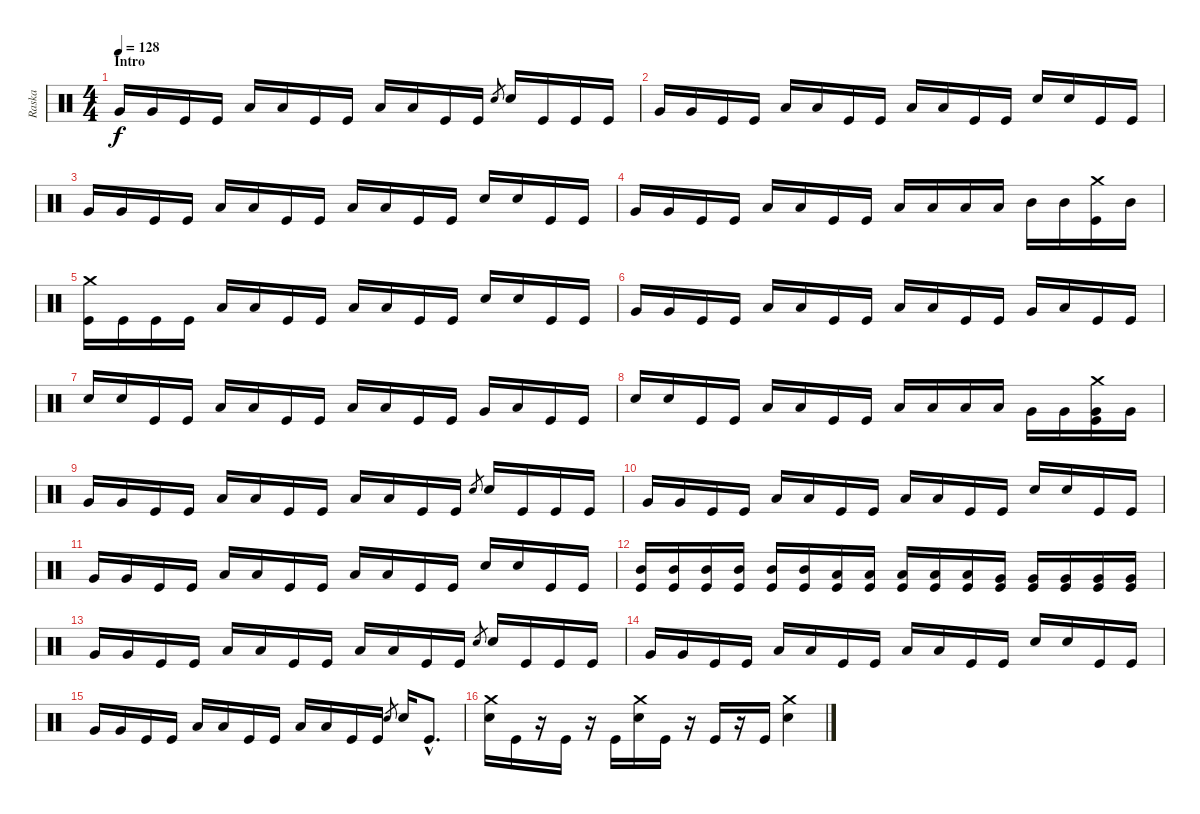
\track ("Raska" "Raska") {instrument percussion}
\staff {score}
\articulation defaults
\ts (4 4)
\section ("" "Intro")
\tempo 128
\clef neutral
\ks c "Very Low Tom (hit)".16{dy f} "Very Low Tom (hit)".16 "Kick (hit)".16 "Kick (hit)".16 "Low Floor Tom (hit)".16 "Low Floor Tom (hit)".16 "Kick (hit)".16 "Kick (hit)".16 "Low Tom (hit)".16 "Low Tom (hit)".16 "Kick (hit)".16 "Kick (hit)".16 "Electric Snare (hit)".8{gr} "Electric Snare (hit)".16 "Kick (hit)".16 "Kick (hit)".16 "Kick (hit)".16
|
"Very Low Tom (hit)".16 "Very Low Tom (hit)".16 "Kick (hit)".16 "Kick (hit)".16 "Low Floor Tom (hit)".16 "Low Floor Tom (hit)".16 "Kick (hit)".16 "Kick (hit)".16 "Low Tom (hit)".16 "Low Tom (hit)".16 "Kick (hit)".16 "Kick (hit)".16 "Electric Snare (hit)".16 "Electric Snare (hit)".16 "Kick (hit)".16 "Kick (hit)".16 |
"Very Low Tom (hit)".16 "Very Low Tom (hit)".16 "Kick (hit)".16 "Kick (hit)".16 "Low Floor Tom (hit)".16 "Low Floor Tom (hit)".16 "Kick (hit)".16 "Kick (hit)".16 "Low Tom (hit)".16 "Low Tom (hit)".16 "Kick (hit)".16 "Kick (hit)".16 "Electric Snare (hit)".16 "Electric Snare (hit)".16 "Kick (hit)".16 "Kick (hit)".16 |
"Very Low Tom (hit)".16 "Very Low Tom (hit)".16 "Kick (hit)".16 "Kick (hit)".16 "Low Floor Tom (hit)".16 "Low Floor Tom (hit)".16 "Kick (hit)".16 "Kick (hit)".16 "Low Floor Tom (hit)".16 "Low Floor Tom (hit)".16 "Low Floor Tom (hit)".16 "Low Floor Tom (hit)".16 "Mid Tom (hit)".16 "Mid Tom (hit)".16 ("Crash medium (hit)" "Kick (hit)").16 "Mid Tom (hit)".16 |
("Crash medium (hit)" "Kick (hit)").16 "Kick (hit)".16 "Kick (hit)".16 "Kick (hit)".16 "Low Floor Tom (hit)".16 "Low Floor Tom (hit)".16 "Kick (hit)".16 "Kick (hit)".16 "Low Tom (hit)".16 "Low Tom (hit)".16 "Kick (hit)".16 "Kick (hit)".16 "Electric Snare (hit)".16 "Electric Snare (hit)".16 "Kick (hit)".16 "Kick (hit)".16 |
"Very Low Tom (hit)".16 "Very Low Tom (hit)".16 "Kick (hit)".16 "Kick (hit)".16 "Low Floor Tom (hit)".16 "Low Floor Tom (hit)".16 "Kick (hit)".16 "Kick (hit)".16 "Low Tom (hit)".16 "Low Tom (hit)".16 "Kick (hit)".16 "Kick (hit)".16 "Very Low Tom (hit)".16 "Low Floor Tom (hit)".16 "Kick (hit)".16 "Kick (hit)".16 |
"Electric Snare (hit)".16 "Electric Snare (hit)".16 "Kick (hit)".16 "Kick (hit)".16 "Low Floor Tom (hit)".16 "Low Floor Tom (hit)".16 "Kick (hit)".16 "Kick (hit)".16 "Low Tom (hit)".16 "Low Tom (hit)".16 "Kick (hit)".16 "Kick (hit)".16 "Very Low Tom (hit)".16 "Low Floor Tom (hit)".16 "Kick (hit)".16 "Kick (hit)".16 |
"Electric Snare (hit)".16 "Electric Snare (hit)".16 "Kick (hit)".16 "Kick (hit)".16 "Low Floor Tom (hit)".16 "Low Floor Tom (hit)".16 "Kick (hit)".16 "Kick (hit)".16 "Low Tom (hit)".16 "Low Tom (hit)".16 "Low Tom (hit)".16 "Low Tom (hit)".16 "Very Low Tom (hit)".16 "Very Low Tom (hit)".16 ("Crash medium (hit)" "Very Low Tom (hit)" "Kick (hit)").16 "Very Low Tom (hit)".16 |
"Very Low Tom (hit)".16 "Very Low Tom (hit)".16 "Kick (hit)".16 "Kick (hit)".16 "Low Floor Tom (hit)".16 "Low Floor Tom (hit)".16 "Kick (hit)".16 "Kick (hit)".16 "Low Tom (hit)".16 "Low Tom (hit)".16 "Kick (hit)".16 "Kick (hit)".16 "Electric Snare (hit)".8{gr} "Electric Snare (hit)".16 "Kick (hit)".16 "Kick (hit)".16 "Kick (hit)".16 |
"Very Low Tom (hit)".16 "Very Low Tom (hit)".16 "Kick (hit)".16 "Kick (hit)".16 "Low Floor Tom (hit)".16 "Low Floor Tom (hit)".16 "Kick (hit)".16 "Kick (hit)".16 "Low Tom (hit)".16 "Low Tom (hit)".16 "Kick (hit)".16 "Kick (hit)".16 "Electric Snare (hit)".16 "Electric Snare (hit)".16 "Kick (hit)".16 "Kick (hit)".16 |
"Very Low Tom (hit)".16 "Very Low Tom (hit)".16 "Kick (hit)".16 "Kick (hit)".16 "Low Floor Tom (hit)".16 "Low Floor Tom (hit)".16 "Kick (hit)".16 "Kick (hit)".16 "Low Tom (hit)".16 "Low Tom (hit)".16 "Kick (hit)".16 "Kick (hit)".16 "Electric Snare (hit)".16 "Electric Snare (hit)".16 "Kick (hit)".16 "Kick (hit)".16 |
("Mid Tom (hit)" "Kick (hit)").16 ("Mid Tom (hit)" "Kick (hit)").16 ("Mid Tom (hit)" "Kick (hit)").16 ("Mid Tom (hit)" "Kick (hit)").16 ("Mid Tom (hit)" "Kick (hit)").16 ("Mid Tom (hit)" "Kick (hit)").16 ("Low Tom (hit)" "Kick (hit)").16 ("Low Tom (hit)" "Kick (hit)").16 ("Low Tom (hit)" "Kick (hit)").16 ("Low Tom (hit)" "Kick (hit)").16 ("Low Tom (hit)" "Kick (hit)").16 ("Very Low Tom (hit)" "Kick (hit)").16 ("Very Low Tom (hit)" "Kick (hit)").16 ("Very Low Tom (hit)" "Kick (hit)").16 ("Very Low Tom (hit)" "Kick (hit)").16 ("Very Low Tom (hit)" "Kick (hit)").16 |
"Very Low Tom (hit)".16 "Very Low Tom (hit)".16 "Kick (hit)".16 "Kick (hit)".16 "Low Floor Tom (hit)".16 "Low Floor Tom (hit)".16 "Kick (hit)".16 "Kick (hit)".16 "Low Tom (hit)".16 "Low Tom (hit)".16 "Kick (hit)".16 "Kick (hit)".16 "Electric Snare (hit)".8{gr} "Electric Snare (hit)".16 "Kick (hit)".16 "Kick (hit)".16 "Kick (hit)".16 |
"Very Low Tom (hit)".16 "Very Low Tom (hit)".16 "Kick (hit)".16 "Kick (hit)".16 "Low Floor Tom (hit)".16 "Low Floor Tom (hit)".16 "Kick (hit)".16 "Kick (hit)".16 "Low Tom (hit)".16 "Low Tom (hit)".16 "Kick (hit)".16 "Kick (hit)".16 "Electric Snare (hit)".16 "Electric Snare (hit)".16 "Kick (hit)".16 "Kick (hit)".16 |
"Very Low Tom (hit)".16 "Very Low Tom (hit)".16 "Kick (hit)".16 "Kick (hit)".16 "Low Floor Tom (hit)".16 "Low Floor Tom (hit)".16 "Kick (hit)".16 "Kick (hit)".16 "Low Tom (hit)".16 "Low Tom (hit)".16 "Kick (hit)".16 "Kick (hit)".16 "Electric Snare (hit)".8{gr} "Electric Snare (hit)".16 "Kick (hit)"{hac}.8{d} |
("Crash medium (hit)" "Electric Snare (hit)").16 "Kick (hit)".16 r.16 "Kick (hit)".16 r.16 "Kick (hit)".16 ("Crash medium (hit)" "Electric Snare (hit)").16 "Kick (hit)".16 r.16 "Kick (hit)".16 r.16 "Kick (hit)".16 ("Crash medium (hit)" "Electric Snare (hit)").4
